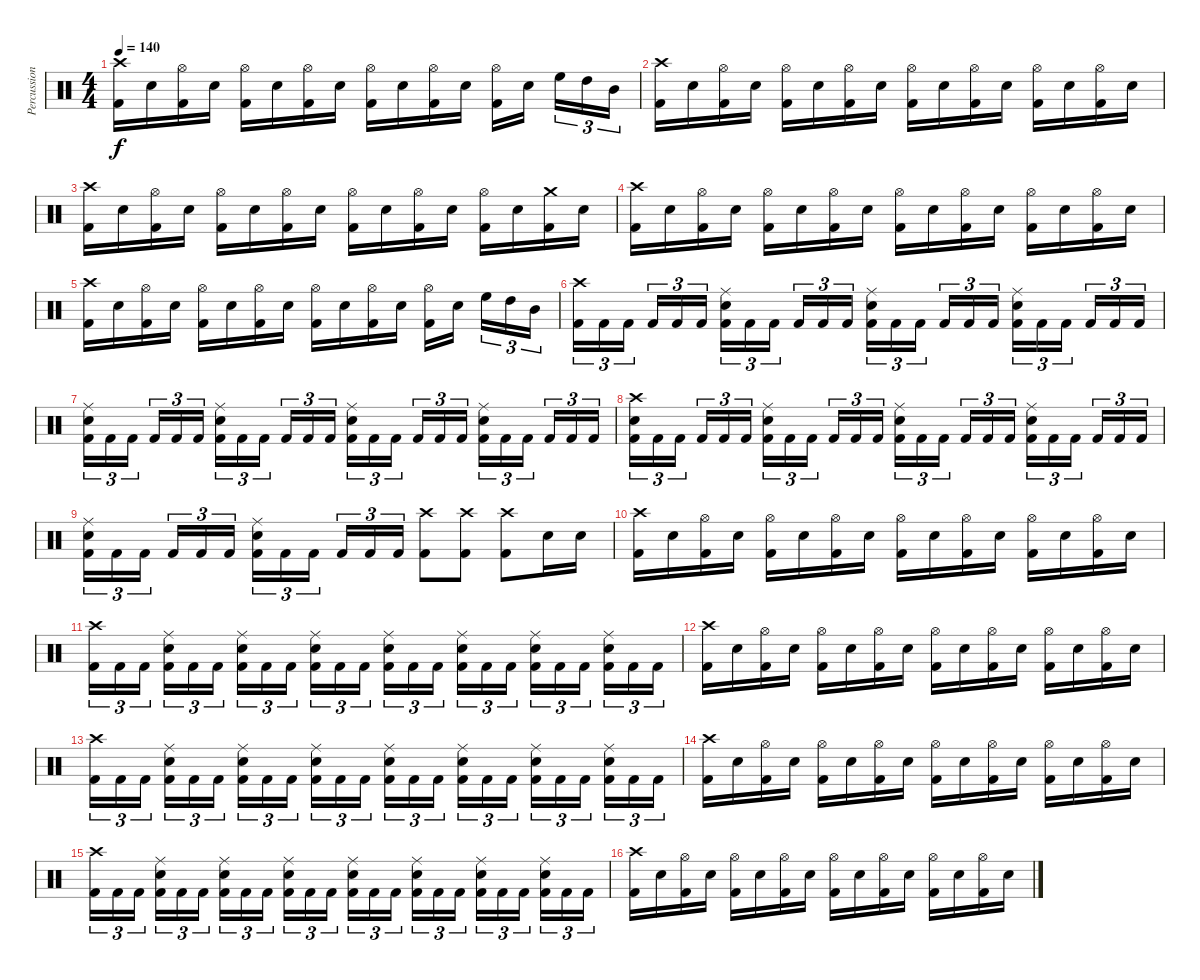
\track ("Percussion" "Percussion") {instrument percussion}
\staff {score}
\articulation defaults
\ts (4 4)
\tempo 140
\clef neutral
\ks c
("Crash high (hit)" "Kick (hit) 2").16{dy f} "Electric Snare (hit)".16 ("Hi-Hat (open)" "Kick (hit) 2").16 "Electric Snare (hit)".16 ("Hi-Hat (open)" "Kick (hit) 2").16 "Electric Snare (hit)".16 ("Hi-Hat (open)" "Kick (hit) 2").16 "Electric Snare (hit)".16 ("Hi-Hat (open)" "Kick (hit) 2").16 "Electric Snare (hit)".16 ("Hi-Hat (open)" "Kick (hit) 2").16 "Electric Snare (hit)".16 ("Hi-Hat (open)" "Kick (hit) 2").16 "Electric Snare (hit)".16 "High Floor Tom (hit)".16{tu (3 2)} "High Tom (hit)".16{tu (3 2)} "Mid Tom (hit)".16{tu (3 2)} |
("Crash high (hit)" "Kick (hit) 2").16 "Electric Snare (hit)".16 ("Hi-Hat (open)" "Kick (hit) 2").16 "Electric Snare (hit)".16 ("Hi-Hat (open)" "Kick (hit) 2").16 "Electric Snare (hit)".16 ("Hi-Hat (open)" "Kick (hit) 2").16 "Electric Snare (hit)".16 ("Hi-Hat (open)" "Kick (hit) 2").16 "Electric Snare (hit)".16 ("Hi-Hat (open)" "Kick (hit) 2").16 "Electric Snare (hit)".16 ("Hi-Hat (open)" "Kick (hit) 2").16 "Electric Snare (hit)".16 ("Hi-Hat (open)" "Kick (hit) 2").16 "Electric Snare (hit)".16 |
("Crash high (hit)" "Kick (hit) 2").16 "Electric Snare (hit)".16 ("Hi-Hat (open)" "Kick (hit) 2").16 "Electric Snare (hit)".16 ("Hi-Hat (open)" "Kick (hit) 2").16 "Electric Snare (hit)".16 ("Hi-Hat (open)" "Kick (hit) 2").16 "Electric Snare (hit)".16 ("Hi-Hat (open)" "Kick (hit) 2").16 "Electric Snare (hit)".16 ("Hi-Hat (open)" "Kick (hit) 2").16 "Electric Snare (hit)".16 ("Hi-Hat (open)" "Kick (hit) 2").16 "Electric Snare (hit)".16 ("Crash medium (hit)" "Kick (hit) 2").16 "Electric Snare (hit)".16 |
("Crash high (hit)" "Kick (hit) 2").16 "Electric Snare (hit)".16 ("Hi-Hat (open)" "Kick (hit) 2").16 "Electric Snare (hit)".16 ("Hi-Hat (open)" "Kick (hit) 2").16 "Electric Snare (hit)".16 ("Hi-Hat (open)" "Kick (hit) 2").16 "Electric Snare (hit)".16 ("Hi-Hat (open)" "Kick (hit) 2").16 "Electric Snare (hit)".16 ("Hi-Hat (open)" "Kick (hit) 2").16 "Electric Snare (hit)".16 ("Hi-Hat (open)" "Kick (hit) 2").16 "Electric Snare (hit)".16 ("Hi-Hat (open)" "Kick (hit) 2").16 "Electric Snare (hit)".16 |
("Crash high (hit)" "Kick (hit) 2").16 "Electric Snare (hit)".16 ("Hi-Hat (open)" "Kick (hit) 2").16 "Electric Snare (hit)".16 ("Hi-Hat (open)" "Kick (hit) 2").16 "Electric Snare (hit)".16 ("Hi-Hat (open)" "Kick (hit) 2").16 "Electric Snare (hit)".16 ("Hi-Hat (open)" "Kick (hit) 2").16 "Electric Snare (hit)".16 ("Hi-Hat (open)" "Kick (hit) 2").16 "Electric Snare (hit)".16 ("Hi-Hat (open)" "Kick (hit) 2").16 "Electric Snare (hit)".16 "High Floor Tom (hit)".16{tu (3 2)} "High Tom (hit)".16{tu (3 2)} "Mid Tom (hit)".16{tu (3 2)} |
("Crash high (hit)" "Kick (hit) 2").16{tu (3 2)} "Kick (hit) 2".16{tu (3 2)} "Kick (hit) 2".16{tu (3 2)} "Kick (hit) 2".16{tu (3 2)} "Kick (hit) 2".16{tu (3 2)} "Kick (hit) 2".16{tu (3 2)} ("Ride (middle)" "Electric Snare (hit)" "Kick (hit) 2").16{tu (3 2)} "Kick (hit) 2".16{tu (3 2)} "Kick (hit) 2".16{tu (3 2)} "Kick (hit) 2".16{tu (3 2)} "Kick (hit) 2".16{tu (3 2)} "Kick (hit) 2".16{tu (3 2)} ("Ride (middle)" "Electric Snare (hit)" "Kick (hit) 2").16{tu (3 2)} "Kick (hit) 2".16{tu (3 2)} "Kick (hit) 2".16{tu (3 2)} "Kick (hit) 2".16{tu (3 2)} "Kick (hit) 2".16{tu (3 2)} "Kick (hit) 2".16{tu (3 2)} ("Ride (middle)" "Electric Snare (hit)" "Kick (hit) 2").16{tu (3 2)} "Kick (hit) 2".16{tu (3 2)} "Kick (hit) 2".16{tu (3 2)} "Kick (hit) 2".16{tu (3 2)} "Kick (hit) 2".16{tu (3 2)} "Kick (hit) 2".16{tu (3 2)} |
("Ride (middle)" "Electric Snare (hit)" "Kick (hit) 2").16{tu (3 2)} "Kick (hit) 2".16{tu (3 2)} "Kick (hit) 2".16{tu (3 2)} "Kick (hit) 2".16{tu (3 2)} "Kick (hit) 2".16{tu (3 2)} "Kick (hit) 2".16{tu (3 2)} ("Ride (middle)" "Electric Snare (hit)" "Kick (hit) 2").16{tu (3 2)} "Kick (hit) 2".16{tu (3 2)} "Kick (hit) 2".16{tu (3 2)} "Kick (hit) 2".16{tu (3 2)} "Kick (hit) 2".16{tu (3 2)} "Kick (hit) 2".16{tu (3 2)} ("Ride (middle)" "Electric Snare (hit)" "Kick (hit) 2").16{tu (3 2)} "Kick (hit) 2".16{tu (3 2)} "Kick (hit) 2".16{tu (3 2)} "Kick (hit) 2".16{tu (3 2)} "Kick (hit) 2".16{tu (3 2)} "Kick (hit) 2".16{tu (3 2)} ("Ride (middle)" "Electric Snare (hit)" "Kick (hit) 2").16{tu (3 2)} "Kick (hit) 2".16{tu (3 2)} "Kick (hit) 2".16{tu (3 2)} "Kick (hit) 2".16{tu (3 2)} "Kick (hit) 2".16{tu (3 2)} "Kick (hit) 2".16{tu (3 2)} |
("Crash high (hit)" "Electric Snare (hit)" "Kick (hit) 2").16{tu (3 2)} "Kick (hit) 2".16{tu (3 2)} "Kick (hit) 2".16{tu (3 2)} "Kick (hit) 2".16{tu (3 2)} "Kick (hit) 2".16{tu (3 2)} "Kick (hit) 2".16{tu (3 2)} ("Ride (middle)" "Electric Snare (hit)" "Kick (hit) 2").16{tu (3 2)} "Kick (hit) 2".16{tu (3 2)} "Kick (hit) 2".16{tu (3 2)} "Kick (hit) 2".16{tu (3 2)} "Kick (hit) 2".16{tu (3 2)} "Kick (hit) 2".16{tu (3 2)} ("Ride (middle)" "Electric Snare (hit)" "Kick (hit) 2").16{tu (3 2)} "Kick (hit) 2".16{tu (3 2)} "Kick (hit) 2".16{tu (3 2)} "Kick (hit) 2".16{tu (3 2)} "Kick (hit) 2".16{tu (3 2)} "Kick (hit) 2".16{tu (3 2)} ("Ride (middle)" "Electric Snare (hit)" "Kick (hit) 2").16{tu (3 2)} "Kick (hit) 2".16{tu (3 2)} "Kick (hit) 2".16{tu (3 2)} "Kick (hit) 2".16{tu (3 2)} "Kick (hit) 2".16{tu (3 2)} "Kick (hit) 2".16{tu (3 2)} |
("Ride (middle)" "Electric Snare (hit)" "Kick (hit) 2").16{tu (3 2)} "Kick (hit) 2".16{tu (3 2)} "Kick (hit) 2".16{tu (3 2)} "Kick (hit) 2".16{tu (3 2)} "Kick (hit) 2".16{tu (3 2)} "Kick (hit) 2".16{tu (3 2)} ("Ride (middle)" "Electric Snare (hit)" "Kick (hit) 2").16{tu (3 2)} "Kick (hit) 2".16{tu (3 2)} "Kick (hit) 2".16{tu (3 2)} "Kick (hit) 2".16{tu (3 2)} "Kick (hit) 2".16{tu (3 2)} "Kick (hit) 2".16{tu (3 2)} ("Crash high (hit)" "Kick (hit) 2").8 ("Crash high (hit)" "Kick (hit) 2").8 ("Crash high (hit)" "Kick (hit) 2").8 "Electric Snare (hit)".16 "Electric Snare (hit)".16 |
("Crash high (hit)" "Kick (hit) 2").16 "Electric Snare (hit)".16 ("Hi-Hat (open)" "Kick (hit) 2").16 "Electric Snare (hit)".16 ("Hi-Hat (open)" "Kick (hit) 2").16 "Electric Snare (hit)".16 ("Hi-Hat (open)" "Kick (hit) 2").16 "Electric Snare (hit)".16 ("Hi-Hat (open)" "Kick (hit) 2").16 "Electric Snare (hit)".16 ("Hi-Hat (open)" "Kick (hit) 2").16 "Electric Snare (hit)".16 ("Hi-Hat (open)" "Kick (hit) 2").16 "Electric Snare (hit)".16 ("Hi-Hat (open)" "Kick (hit) 2").16 "Electric Snare (hit)".16 |
("Crash high (hit)" "Kick (hit) 2").16{tu (3 2)} "Kick (hit) 2".16{tu (3 2)} "Kick (hit) 2".16{tu (3 2)} ("Ride (middle)" "Electric Snare (hit)" "Kick (hit) 2").16{tu (3 2)} "Kick (hit) 2".16{tu (3 2)} "Kick (hit) 2".16{tu (3 2)} ("Ride (middle)" "Electric Snare (hit)" "Kick (hit) 2").16{tu (3 2)} "Kick (hit) 2".16{tu (3 2)} "Kick (hit) 2".16{tu (3 2)} ("Ride (middle)" "Electric Snare (hit)" "Kick (hit) 2").16{tu (3 2)} "Kick (hit) 2".16{tu (3 2)} "Kick (hit) 2".16{tu (3 2)} ("Ride (middle)" "Electric Snare (hit)" "Kick (hit) 2").16{tu (3 2)} "Kick (hit) 2".16{tu (3 2)} "Kick (hit) 2".16{tu (3 2)} ("Ride (middle)" "Electric Snare (hit)" "Kick (hit) 2").16{tu (3 2)} "Kick (hit) 2".16{tu (3 2)} "Kick (hit) 2".16{tu (3 2)} ("Ride (middle)" "Electric Snare (hit)" "Kick (hit) 2").16{tu (3 2)} "Kick (hit) 2".16{tu (3 2)} "Kick (hit) 2".16{tu (3 2)} ("Ride (middle)" "Electric Snare (hit)" "Kick (hit) 2").16{tu (3 2)} "Kick (hit) 2".16{tu (3 2)} "Kick (hit) 2".16{tu (3 2)} |
("Crash high (hit)" "Kick (hit) 2").16 "Electric Snare (hit)".16 ("Hi-Hat (open)" "Kick (hit) 2").16 "Electric Snare (hit)".16 ("Hi-Hat (open)" "Kick (hit) 2").16 "Electric Snare (hit)".16 ("Hi-Hat (open)" "Kick (hit) 2").16 "Electric Snare (hit)".16 ("Hi-Hat (open)" "Kick (hit) 2").16 "Electric Snare (hit)".16 ("Hi-Hat (open)" "Kick (hit) 2").16 "Electric Snare (hit)".16 ("Hi-Hat (open)" "Kick (hit) 2").16 "Electric Snare (hit)".16 ("Hi-Hat (open)" "Kick (hit) 2").16 "Electric Snare (hit)".16 |
("Crash high (hit)" "Kick (hit) 2").16{tu (3 2)} "Kick (hit) 2".16{tu (3 2)} "Kick (hit) 2".16{tu (3 2)} ("Ride (middle)" "Electric Snare (hit)" "Kick (hit) 2").16{tu (3 2)} "Kick (hit) 2".16{tu (3 2)} "Kick (hit) 2".16{tu (3 2)} ("Ride (middle)" "Electric Snare (hit)" "Kick (hit) 2").16{tu (3 2)} "Kick (hit) 2".16{tu (3 2)} "Kick (hit) 2".16{tu (3 2)} ("Ride (middle)" "Electric Snare (hit)" "Kick (hit) 2").16{tu (3 2)} "Kick (hit) 2".16{tu (3 2)} "Kick (hit) 2".16{tu (3 2)} ("Ride (middle)" "Electric Snare (hit)" "Kick (hit) 2").16{tu (3 2)} "Kick (hit) 2".16{tu (3 2)} "Kick (hit) 2".16{tu (3 2)} ("Ride (middle)" "Electric Snare (hit)" "Kick (hit) 2").16{tu (3 2)} "Kick (hit) 2".16{tu (3 2)} "Kick (hit) 2".16{tu (3 2)} ("Ride (middle)" "Electric Snare (hit)" "Kick (hit) 2").16{tu (3 2)} "Kick (hit) 2".16{tu (3 2)} "Kick (hit) 2".16{tu (3 2)} ("Ride (middle)" "Electric Snare (hit)" "Kick (hit) 2").16{tu (3 2)} "Kick (hit) 2".16{tu (3 2)} "Kick (hit) 2".16{tu (3 2)} |
("Crash high (hit)" "Kick (hit) 2").16 "Electric Snare (hit)".16 ("Hi-Hat (open)" "Kick (hit) 2").16 "Electric Snare (hit)".16 ("Hi-Hat (open)" "Kick (hit) 2").16 "Electric Snare (hit)".16 ("Hi-Hat (open)" "Kick (hit) 2").16 "Electric Snare (hit)".16 ("Hi-Hat (open)" "Kick (hit) 2").16 "Electric Snare (hit)".16 ("Hi-Hat (open)" "Kick (hit) 2").16 "Electric Snare (hit)".16 ("Hi-Hat (open)" "Kick (hit) 2").16 "Electric Snare (hit)".16 ("Hi-Hat (open)" "Kick (hit) 2").16 "Electric Snare (hit)".16 |
("Crash high (hit)" "Kick (hit) 2").16{tu (3 2)} "Kick (hit) 2".16{tu (3 2)} "Kick (hit) 2".16{tu (3 2)} ("Ride (middle)" "Electric Snare (hit)" "Kick (hit) 2").16{tu (3 2)} "Kick (hit) 2".16{tu (3 2)} "Kick (hit) 2".16{tu (3 2)} ("Ride (middle)" "Electric Snare (hit)" "Kick (hit) 2").16{tu (3 2)} "Kick (hit) 2".16{tu (3 2)} "Kick (hit) 2".16{tu (3 2)} ("Ride (middle)" "Electric Snare (hit)" "Kick (hit) 2").16{tu (3 2)} "Kick (hit) 2".16{tu (3 2)} "Kick (hit) 2".16{tu (3 2)} ("Ride (middle)" "Electric Snare (hit)" "Kick (hit) 2").16{tu (3 2)} "Kick (hit) 2".16{tu (3 2)} "Kick (hit) 2".16{tu (3 2)} ("Ride (middle)" "Electric Snare (hit)" "Kick (hit) 2").16{tu (3 2)} "Kick (hit) 2".16{tu (3 2)} "Kick (hit) 2".16{tu (3 2)} ("Ride (middle)" "Electric Snare (hit)" "Kick (hit) 2").16{tu (3 2)} "Kick (hit) 2".16{tu (3 2)} "Kick (hit) 2".16{tu (3 2)} ("Ride (middle)" "Electric Snare (hit)" "Kick (hit) 2").16{tu (3 2)} "Kick (hit) 2".16{tu (3 2)} "Kick (hit) 2".16{tu (3 2)} |
("Crash high (hit)" "Kick (hit) 2").16 "Electric Snare (hit)".16 ("Hi-Hat (open)" "Kick (hit) 2").16 "Electric Snare (hit)".16 ("Hi-Hat (open)" "Kick (hit) 2").16 "Electric Snare (hit)".16 ("Hi-Hat (open)" "Kick (hit) 2").16 "Electric Snare (hit)".16 ("Hi-Hat (open)" "Kick (hit) 2").16 "Electric Snare (hit)".16 ("Hi-Hat (open)" "Kick (hit) 2").16 "Electric Snare (hit)".16 ("Hi-Hat (open)" "Kick (hit) 2").16 "Electric Snare (hit)".16 ("Hi-Hat (open)" "Kick (hit) 2").16 "Electric Snare (hit)".16
